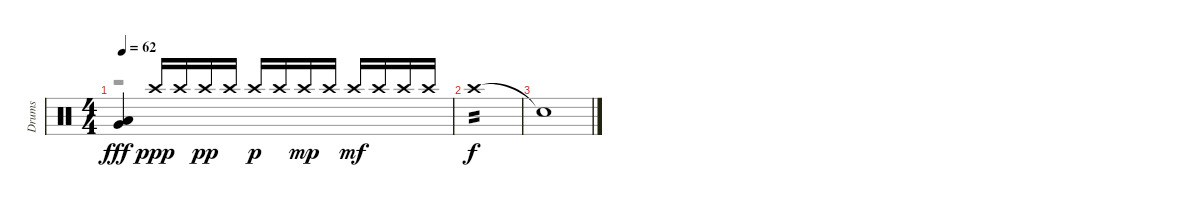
\track ("Drums" "Drums") {solo instrument percussion}
\staff {score}
\articulation defaults
\voice
\ts (4 4)
\tempo 62
\clef neutral
\ks c
("Low Tom (hit)" "Very Low Tom (hit)").4{dy fff} "Crash high (hit)".16{dy ppp} "Crash high (hit)".16 "Crash high (hit)".16{dy pp} "Crash high (hit)".16 "Crash high (hit)".16{dy p} "Crash high (hit)".16 "Crash high (hit)".16{dy mp} "Crash high (hit)".16 "Crash high (hit)".16{dy mf} "Crash high (hit)".16 "Crash high (hit)".16 "Crash high (hit)".16 |
"Crash high (hit)".1{tp 2 dy f} |
"Snare (hit)"{t}.1
\voice
\clef neutral
\ottava regular
\simile none
\ks c
r.1{dy f} |
|
